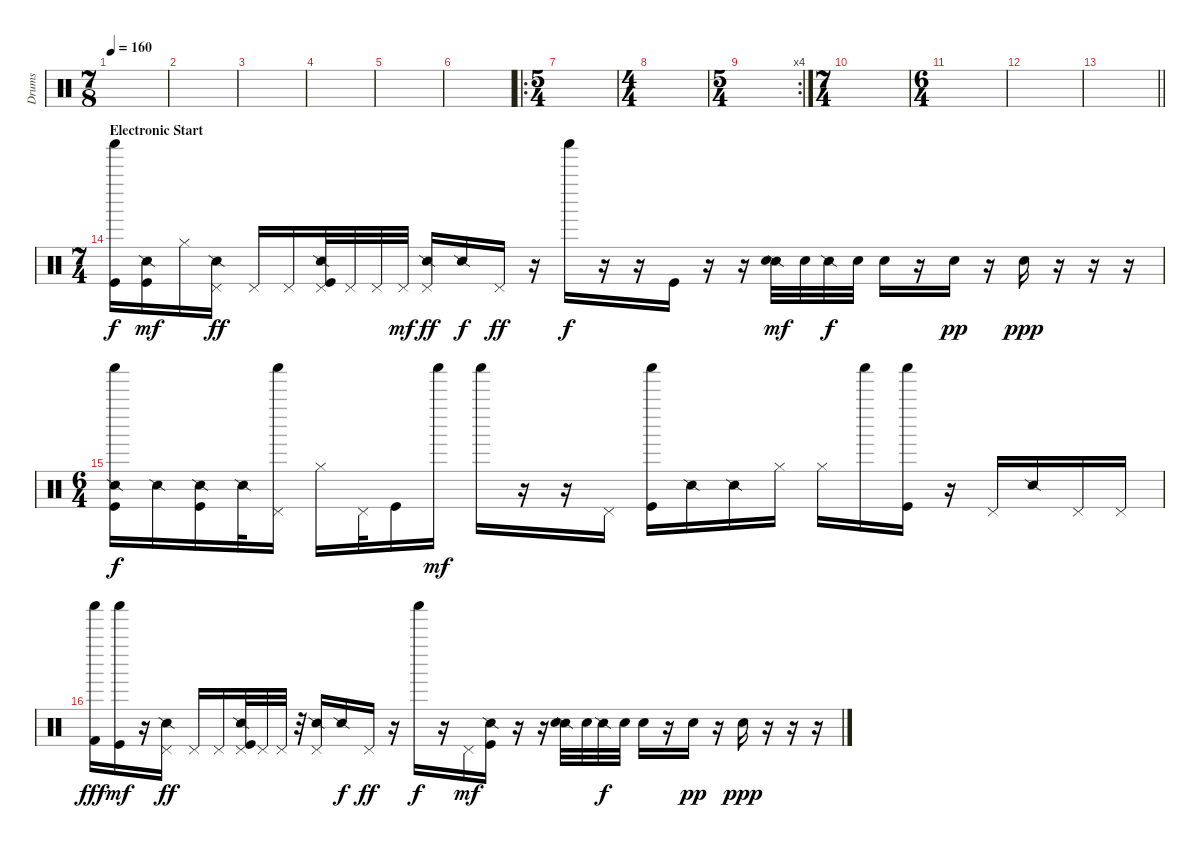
\track ("Drums" "Drums") {instrument percussion}
\staff {score}
\articulation defaults
\ts (7 8)
\tempo 160
\clef neutral
\ks c
|
|
|
|
|
|
\ro
\ts (5 4)
|
\ts (4 4)
|
\rc 4
\ts (5 4)
|
\ts (7 4)
|
\ts (6 4)
|
|
\barLineRight lightlight
|
\ts (7 4)
\section ("" "Electronic Start")
("Shaker (hit)" "Kick (hit)").16 ("Snare (side stick) 2" "Kick (hit)").16{dy mf} "Hi-Hat (closed)".16 ("Pedal Hi-Hat (hit)" "Snare (side stick) 2").16{dy ff} "Pedal Hi-Hat (hit)".16 "Pedal Hi-Hat (hit)".16 ("Pedal Hi-Hat (hit)" "Snare (side stick) 2" "Kick (hit)").32 "Pedal Hi-Hat (hit)".32 "Pedal Hi-Hat (hit)".32 "Pedal Hi-Hat (hit)".32{dy mf} ("Pedal Hi-Hat (hit)" "Snare (side stick) 2").16{dy ff} "Snare (side stick) 2".16{dy f} "Pedal Hi-Hat (hit)".16{dy ff} r.16 "Shaker (hit)".16{dy f} r.16 r.16 "Kick (hit)".16 r.16 r.16 ("Snare (side stick) 2" "Snare (hit) 2").32{dy mf} "Snare (hit) 2".32 "Snare (side stick) 2".32{dy f} "Hand Clap (hit)".32 "Hand Clap (hit)".16 r.16 "Hand Clap (hit)".16{dy pp} r.16 "Hand Clap (hit)".16{dy ppp} r.16 r.16 r.16 |
\ts (6 4)
("Snare (side stick) 2" "Shaker (hit)" "Kick (hit)").16{dy f} "Snare (side stick) 2".16 ("Snare (side stick) 2" "Kick (hit)").16 "Snare (side stick) 2".32 ("Pedal Hi-Hat (hit)" "Shaker (hit)").16 "Hi-Hat (closed)".16 "Pedal Hi-Hat (hit)".32 "Kick (hit)".16 "Shaker (hit)".16{dy mf} "Shaker (hit)".16 r.16 r.16 "Pedal Hi-Hat (hit)".16 ("Shaker (hit)" "Kick (hit)").16 "Snare (side stick) 2".16 "Snare (side stick) 2".16 "Hi-Hat (closed)".16 "Hi-Hat (closed)".16 "Shaker (hit)".16 ("Shaker (hit)" "Kick (hit)").16 r.16 "Pedal Hi-Hat (hit)".16 "Snare (side stick) 2".16 "Pedal Hi-Hat (hit)".16 "Pedal Hi-Hat (hit)".16 |
("Shaker (hit)" "Kick (hit) 2").16{dy fff} ("Shaker (hit)" "Kick (hit)").16{dy mf} r.16 ("Pedal Hi-Hat (hit)" "Snare (side stick) 2").16{dy ff} "Pedal Hi-Hat (hit)".16 "Pedal Hi-Hat (hit)".16 ("Pedal Hi-Hat (hit)" "Snare (side stick) 2" "Kick (hit)").32 "Pedal Hi-Hat (hit)".32 "Pedal Hi-Hat (hit)".32 r.32 ("Pedal Hi-Hat (hit)" "Snare (side stick) 2").16 "Snare (side stick) 2".16{dy f} "Pedal Hi-Hat (hit)".16{dy ff} r.16 "Shaker (hit)".16{dy f} r.16 "Pedal Hi-Hat (hit)".16{dy mf} ("Snare (side stick) 2" "Kick (hit)").16 r.16 r.16 ("Snare (side stick) 2" "Snare (hit) 2").32 "Snare (hit) 2".32 "Snare (side stick) 2".32{dy f} "Hand Clap (hit)".32 "Hand Clap (hit)".16 r.16 "Hand Clap (hit)".16{dy pp} r.16 "Hand Clap (hit)".16{dy ppp} r.16 r.16 r.16
